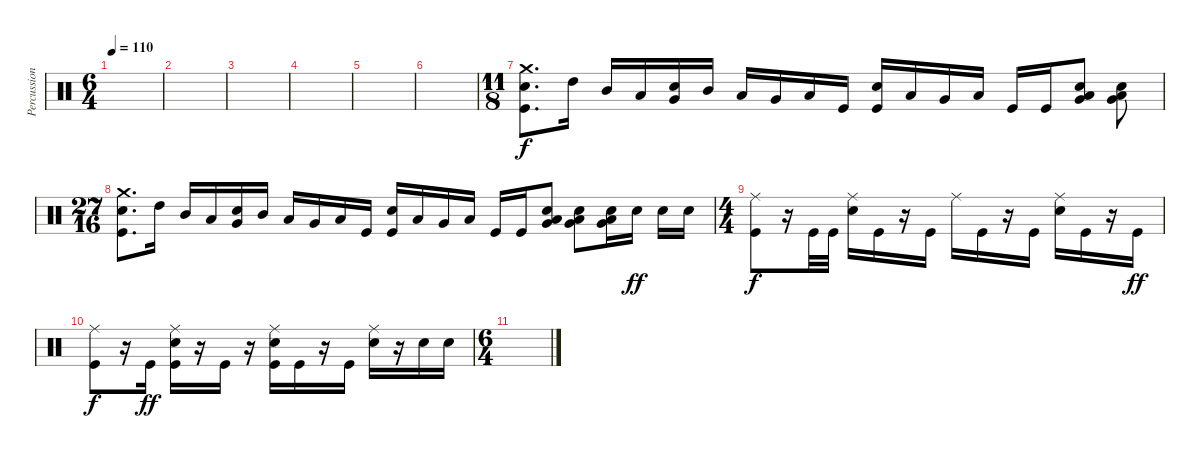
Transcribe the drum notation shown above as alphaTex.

\track ("Percussion" "Percussion") {instrument percussion}
\staff {score}
\articulation defaults
\ts (6 4)
\tempo 110
\clef neutral
\ks c
|
|
|
|
|
|
\ts (11 8)
("Crash medium (hit)" "Electric Snare (hit)" "Kick (hit)").8{d dy f} "High Tom (hit)".16 "Mid Tom (hit)".16 "Low Tom (hit)".16 ("Electric Snare (hit)" "Very Low Tom (hit)").16 "Mid Tom (hit)".16 "Low Tom (hit)".16 "Very Low Tom (hit)".16 "Low Floor Tom (hit)".16 "Kick (hit)".16 ("Electric Snare (hit)" "Kick (hit)").16 "Low Tom (hit)".16 "Very Low Tom (hit)".16 "Low Floor Tom (hit)".16 "Kick (hit)".16 "Kick (hit)".16 ("Electric Snare (hit)" "Very Low Tom (hit)" "Low Floor Tom (hit)").8 ("Electric Snare (hit)" "Very Low Tom (hit)" "Low Floor Tom (hit)").8 |
\ts (27 16)
("Crash medium (hit)" "Electric Snare (hit)" "Kick (hit)").8{d} "High Tom (hit)".16 "Mid Tom (hit)".16 "Low Tom (hit)".16 ("Electric Snare (hit)" "Very Low Tom (hit)").16 "Mid Tom (hit)".16 "Low Tom (hit)".16 "Very Low Tom (hit)".16 "Low Floor Tom (hit)".16 "Kick (hit)".16 ("Electric Snare (hit)" "Kick (hit)").16 "Low Tom (hit)".16 "Very Low Tom (hit)".16 "Low Floor Tom (hit)".16 "Kick (hit)".16 "Kick (hit)".16 ("Electric Snare (hit)" "Very Low Tom (hit)" "Low Floor Tom (hit)").8 ("Electric Snare (hit)" "Very Low Tom (hit)" "Low Floor Tom (hit)").8 ("Electric Snare (hit)" "Very Low Tom (hit)" "Low Floor Tom (hit)").16 "Electric Snare (hit)".16{dy ff} "Electric Snare (hit)".16 "Electric Snare (hit)".16 |
\ts (4 4)
("Ride (middle)" "Kick (hit)").8{dy f} r.16 "Kick (hit)".32 "Kick (hit)".32 ("Ride (middle)" "Electric Snare (hit)").16 "Kick (hit)".16 r.16 "Kick (hit)".16 "Ride (middle)".16 "Kick (hit)".16 r.16 "Kick (hit)".16 ("Ride (middle)" "Electric Snare (hit)").16 "Kick (hit)".16 r.16 "Kick (hit)".16{dy ff} |
("Ride (middle)" "Kick (hit)").8{dy f} r.16 "Kick (hit)".16{dy ff} ("Ride (middle)" "Electric Snare (hit)" "Kick (hit)").16 r.16 "Kick (hit)".16 r.16 ("Ride (middle)" "Electric Snare (hit)" "Kick (hit)").16 "Kick (hit)".16 r.16 "Kick (hit)".16 ("Ride (middle)" "Electric Snare (hit)").16 r.16 "Electric Snare (hit)".16 "Electric Snare (hit)".16 |
\ts (6 4)
